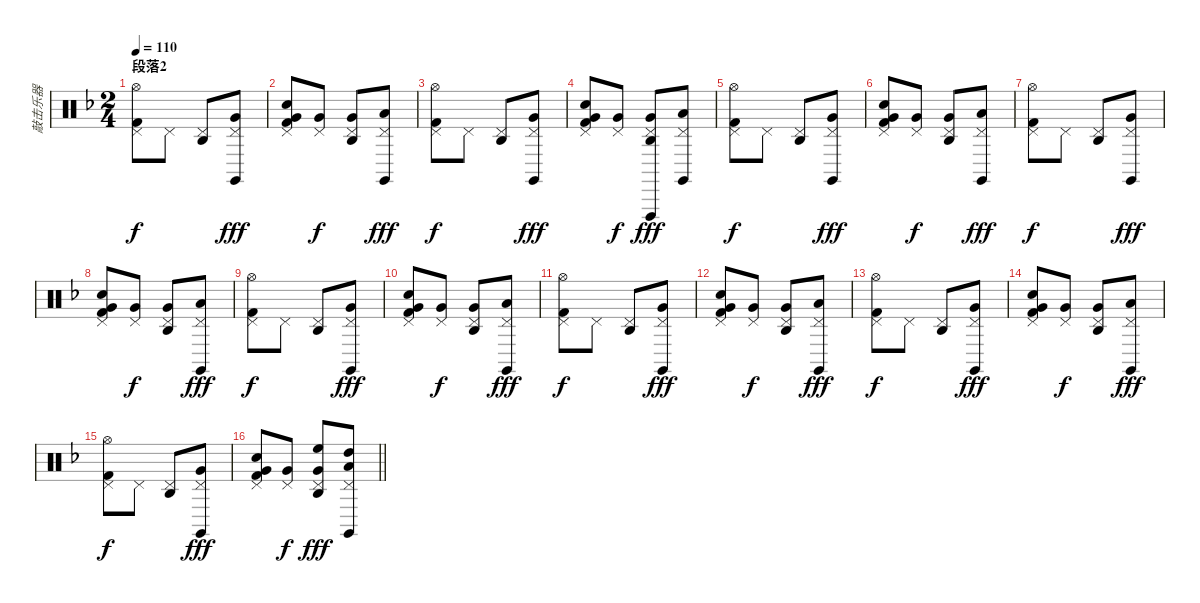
\track ("敲击乐器" "敲击乐器") {instrument percussion}
\staff {score}
\articulation defaults
\ts (2 4)
\section ("" "段落2")
\tempo 110
\clef neutral
\ks dminor
("Hi-Hat (open)" "Pedal Hi-Hat (hit)" "Kick (hit) 2").8{dy f} "Pedal Hi-Hat (hit)".8 ("Pedal Hi-Hat (hit)" "Agogo high (hit)").8 ("Pedal Hi-Hat (hit)" "Claves (hit)" "Very Low Tom (hit)").8{dy fff} |
("Pedal Hi-Hat (hit)" "Electric Snare (hit)" "Very Low Tom (hit)" "Kick (hit) 2").8 ("Pedal Hi-Hat (hit)" "Very Low Tom (hit)").8{dy f} ("Pedal Hi-Hat (hit)" "Agogo high (hit)" "Very Low Tom (hit)").8 ("Pedal Hi-Hat (hit)" "Claves (hit)" "Low Floor Tom (hit)").8{dy fff} |
("Hi-Hat (open)" "Pedal Hi-Hat (hit)" "Kick (hit) 2").8{dy f} "Pedal Hi-Hat (hit)".8 ("Pedal Hi-Hat (hit)" "Agogo high (hit)").8 ("Pedal Hi-Hat (hit)" "Claves (hit)" "Very Low Tom (hit)").8{dy fff} |
("Pedal Hi-Hat (hit)" "Electric Snare (hit)" "Very Low Tom (hit)" "Kick (hit) 2").8 ("Pedal Hi-Hat (hit)" "Very Low Tom (hit)").8{dy f} ("Pedal Hi-Hat (hit)" "Agogo high (hit)" "Vibraslap (hit)" "Very Low Tom (hit)").8{dy fff} ("Pedal Hi-Hat (hit)" "Claves (hit)" "Low Floor Tom (hit)").8 |
("Hi-Hat (open)" "Pedal Hi-Hat (hit)" "Kick (hit) 2").8{dy f} "Pedal Hi-Hat (hit)".8 ("Pedal Hi-Hat (hit)" "Agogo high (hit)").8 ("Pedal Hi-Hat (hit)" "Claves (hit)" "Very Low Tom (hit)").8{dy fff} |
("Pedal Hi-Hat (hit)" "Electric Snare (hit)" "Very Low Tom (hit)" "Kick (hit) 2").8 ("Pedal Hi-Hat (hit)" "Very Low Tom (hit)").8{dy f} ("Pedal Hi-Hat (hit)" "Agogo high (hit)" "Very Low Tom (hit)").8 ("Pedal Hi-Hat (hit)" "Claves (hit)" "Low Floor Tom (hit)").8{dy fff} |
("Hi-Hat (open)" "Pedal Hi-Hat (hit)" "Kick (hit) 2").8{dy f} "Pedal Hi-Hat (hit)".8 ("Pedal Hi-Hat (hit)" "Agogo high (hit)").8 ("Pedal Hi-Hat (hit)" "Claves (hit)" "Very Low Tom (hit)").8{dy fff} |
("Pedal Hi-Hat (hit)" "Electric Snare (hit)" "Very Low Tom (hit)" "Kick (hit) 2").8 ("Pedal Hi-Hat (hit)" "Very Low Tom (hit)").8{dy f} ("Pedal Hi-Hat (hit)" "Agogo high (hit)" "Very Low Tom (hit)").8 ("Pedal Hi-Hat (hit)" "Claves (hit)" "Low Floor Tom (hit)").8{dy fff} |
("Hi-Hat (open)" "Pedal Hi-Hat (hit)" "Kick (hit) 2").8{dy f} "Pedal Hi-Hat (hit)".8 ("Pedal Hi-Hat (hit)" "Agogo high (hit)").8 ("Pedal Hi-Hat (hit)" "Claves (hit)" "Very Low Tom (hit)").8{dy fff} |
("Pedal Hi-Hat (hit)" "Electric Snare (hit)" "Very Low Tom (hit)" "Kick (hit) 2").8 ("Pedal Hi-Hat (hit)" "Very Low Tom (hit)").8{dy f} ("Pedal Hi-Hat (hit)" "Agogo high (hit)" "Very Low Tom (hit)").8 ("Pedal Hi-Hat (hit)" "Claves (hit)" "Low Floor Tom (hit)").8{dy fff} |
("Hi-Hat (open)" "Pedal Hi-Hat (hit)" "Kick (hit) 2").8{dy f} "Pedal Hi-Hat (hit)".8 ("Pedal Hi-Hat (hit)" "Agogo high (hit)").8 ("Pedal Hi-Hat (hit)" "Claves (hit)" "Very Low Tom (hit)").8{dy fff} |
("Pedal Hi-Hat (hit)" "Electric Snare (hit)" "Very Low Tom (hit)" "Kick (hit) 2").8 ("Pedal Hi-Hat (hit)" "Very Low Tom (hit)").8{dy f} ("Pedal Hi-Hat (hit)" "Agogo high (hit)" "Very Low Tom (hit)").8 ("Pedal Hi-Hat (hit)" "Claves (hit)" "Low Floor Tom (hit)").8{dy fff} |
("Hi-Hat (open)" "Pedal Hi-Hat (hit)" "Kick (hit) 2").8{dy f} "Pedal Hi-Hat (hit)".8 ("Pedal Hi-Hat (hit)" "Agogo high (hit)").8 ("Pedal Hi-Hat (hit)" "Claves (hit)" "Very Low Tom (hit)").8{dy fff} |
("Pedal Hi-Hat (hit)" "Electric Snare (hit)" "Very Low Tom (hit)" "Kick (hit) 2").8 ("Pedal Hi-Hat (hit)" "Very Low Tom (hit)").8{dy f} ("Pedal Hi-Hat (hit)" "Agogo high (hit)" "Very Low Tom (hit)").8 ("Pedal Hi-Hat (hit)" "Claves (hit)" "Low Floor Tom (hit)").8{dy fff} |
("Hi-Hat (open)" "Pedal Hi-Hat (hit)" "Kick (hit) 2").8{dy f} "Pedal Hi-Hat (hit)".8 ("Pedal Hi-Hat (hit)" "Agogo high (hit)").8 ("Pedal Hi-Hat (hit)" "Claves (hit)" "Very Low Tom (hit)").8{dy fff} |
\barLineRight lightlight
("Pedal Hi-Hat (hit)" "Electric Snare (hit)" "Very Low Tom (hit)" "Kick (hit) 2").8 ("Pedal Hi-Hat (hit)" "Very Low Tom (hit)").8{dy f} ("Pedal Hi-Hat (hit)" "Agogo high (hit)" "High Floor Tom (hit)" "Very Low Tom (hit)").8{dy fff} ("Pedal Hi-Hat (hit)" "Claves (hit)" "High Tom (hit)" "Low Floor Tom (hit)").8
